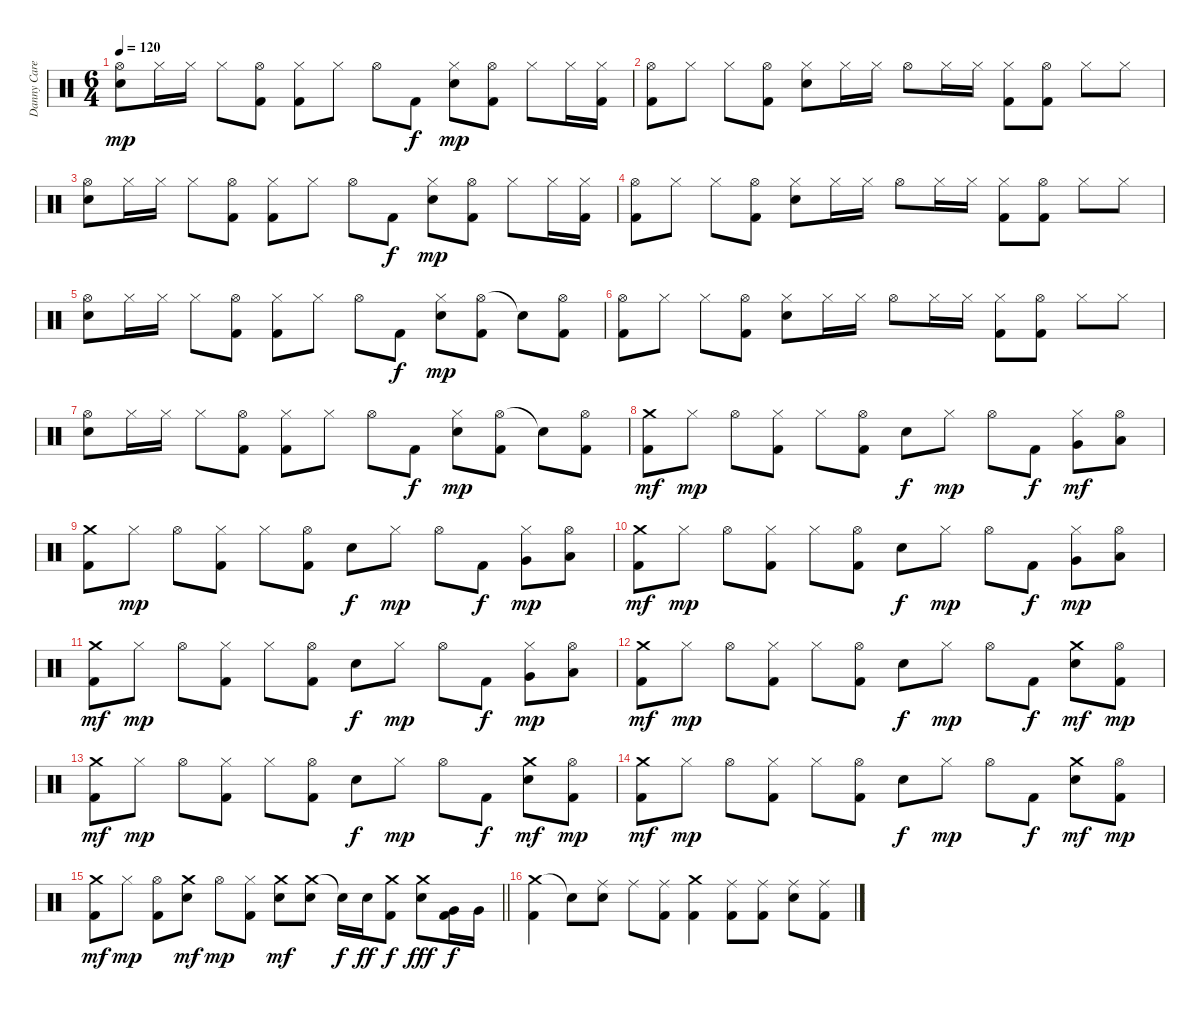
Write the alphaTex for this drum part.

\track ("Danny Carey" "Danny Care") {instrument percussion}
\staff {score}
\articulation defaults
\ts (6 4)
\tempo 120
\clef neutral
\ks c
("Hi-Hat (open)" "Snare (hit) 2").8{dy mp} "Hi-Hat (closed)".16 "Hi-Hat (closed)".16 "Hi-Hat (closed)".8 ("Hi-Hat (open)" "Kick (hit) 2").8 ("Hi-Hat (closed)" "Kick (hit) 2").8 "Hi-Hat (closed)".8 "Hi-Hat (open)".8 "Kick (hit) 2".8{dy f} ("Hi-Hat (closed)" "Snare (hit) 2").8{dy mp} ("Hi-Hat (open)" "Kick (hit) 2").8 "Hi-Hat (closed)".8 "Hi-Hat (closed)".16 ("Hi-Hat (closed)" "Kick (hit) 2").16 |
("Hi-Hat (open)" "Kick (hit) 2").8 "Hi-Hat (closed)".8 "Hi-Hat (closed)".8 ("Hi-Hat (open)" "Kick (hit) 2").8 ("Hi-Hat (closed)" "Snare (hit) 2").8 "Hi-Hat (closed)".16 "Hi-Hat (closed)".16 "Hi-Hat (open)".8 "Hi-Hat (closed)".16 "Hi-Hat (closed)".16 ("Hi-Hat (closed)" "Kick (hit) 2").8 ("Hi-Hat (open)" "Kick (hit) 2").8 "Hi-Hat (closed)".8 "Hi-Hat (closed)".8 |
("Hi-Hat (open)" "Snare (hit) 2").8 "Hi-Hat (closed)".16 "Hi-Hat (closed)".16 "Hi-Hat (closed)".8 ("Hi-Hat (open)" "Kick (hit) 2").8 ("Hi-Hat (closed)" "Kick (hit) 2").8 "Hi-Hat (closed)".8 "Hi-Hat (open)".8 "Kick (hit) 2".8{dy f} ("Hi-Hat (closed)" "Snare (hit) 2").8{dy mp} ("Hi-Hat (open)" "Kick (hit) 2").8 "Hi-Hat (closed)".8 "Hi-Hat (closed)".16 ("Hi-Hat (closed)" "Kick (hit) 2").16 |
("Hi-Hat (open)" "Kick (hit) 2").8 "Hi-Hat (closed)".8 "Hi-Hat (closed)".8 ("Hi-Hat (open)" "Kick (hit) 2").8 ("Hi-Hat (closed)" "Snare (hit) 2").8 "Hi-Hat (closed)".16 "Hi-Hat (closed)".16 "Hi-Hat (open)".8 "Hi-Hat (closed)".16 "Hi-Hat (closed)".16 ("Hi-Hat (closed)" "Kick (hit) 2").8 ("Hi-Hat (open)" "Kick (hit) 2").8 "Hi-Hat (closed)".8 "Hi-Hat (closed)".8 |
("Hi-Hat (open)" "Snare (hit) 2").8 "Hi-Hat (closed)".16 "Hi-Hat (closed)".16 "Hi-Hat (closed)".8 ("Hi-Hat (open)" "Kick (hit) 2").8 ("Hi-Hat (closed)" "Kick (hit) 2").8 "Hi-Hat (closed)".8 "Hi-Hat (open)".8 "Kick (hit) 2".8{dy f} ("Hi-Hat (closed)" "Snare (hit) 2").8{dy mp} ("Hi-Hat (open)" "Kick (hit) 2").8 "Snare (hit)"{t}.8 ("Hi-Hat (open)" "Kick (hit) 2").8 |
("Hi-Hat (open)" "Kick (hit) 2").8 "Hi-Hat (closed)".8 "Hi-Hat (closed)".8 ("Hi-Hat (open)" "Kick (hit) 2").8 ("Hi-Hat (closed)" "Snare (hit) 2").8 "Hi-Hat (closed)".16 "Hi-Hat (closed)".16 "Hi-Hat (open)".8 "Hi-Hat (closed)".16 "Hi-Hat (closed)".16 ("Hi-Hat (closed)" "Kick (hit) 2").8 ("Hi-Hat (open)" "Kick (hit) 2").8 "Hi-Hat (closed)".8 "Hi-Hat (closed)".8 |
("Hi-Hat (open)" "Snare (hit) 2").8 "Hi-Hat (closed)".16 "Hi-Hat (closed)".16 "Hi-Hat (closed)".8 ("Hi-Hat (open)" "Kick (hit) 2").8 ("Hi-Hat (closed)" "Kick (hit) 2").8 "Hi-Hat (closed)".8 "Hi-Hat (open)".8 "Kick (hit) 2".8{dy f} ("Hi-Hat (closed)" "Snare (hit) 2").8{dy mp} ("Hi-Hat (open)" "Kick (hit) 2").8 "Snare (hit)"{t}.8 ("Hi-Hat (open)" "Kick (hit) 2").8 |
("Crash medium (hit)" "Kick (hit) 2").8{dy mf} "Hi-Hat (closed)".8{dy mp} "Hi-Hat (open)".8 ("Hi-Hat (closed)" "Kick (hit) 2").8 "Hi-Hat (closed)".8 ("Hi-Hat (open)" "Kick (hit) 2").8 "Snare (hit) 2".8{dy f} "Hi-Hat (closed)".8{dy mp} "Hi-Hat (open)".8 "Kick (hit) 2".8{dy f} ("Hi-Hat (closed)" "Very Low Tom (hit)").8{dy mf} ("Hi-Hat (open)" "Low Floor Tom (hit)").8 |
("Crash medium (hit)" "Kick (hit) 2").8 "Hi-Hat (closed)".8{dy mp} "Hi-Hat (open)".8 ("Hi-Hat (closed)" "Kick (hit) 2").8 "Hi-Hat (closed)".8 ("Hi-Hat (open)" "Kick (hit) 2").8 "Snare (hit) 2".8{dy f} "Hi-Hat (closed)".8{dy mp} "Hi-Hat (open)".8 "Kick (hit) 2".8{dy f} ("Hi-Hat (closed)" "Very Low Tom (hit)").8{dy mp} ("Hi-Hat (open)" "Low Floor Tom (hit)").8 |
("Crash medium (hit)" "Kick (hit) 2").8{dy mf} "Hi-Hat (closed)".8{dy mp} "Hi-Hat (open)".8 ("Hi-Hat (closed)" "Kick (hit) 2").8 "Hi-Hat (closed)".8 ("Hi-Hat (open)" "Kick (hit) 2").8 "Snare (hit) 2".8{dy f} "Hi-Hat (closed)".8{dy mp} "Hi-Hat (open)".8 "Kick (hit) 2".8{dy f} ("Hi-Hat (closed)" "Very Low Tom (hit)").8{dy mp} ("Hi-Hat (open)" "Low Floor Tom (hit)").8 |
("Crash medium (hit)" "Kick (hit) 2").8{dy mf} "Hi-Hat (closed)".8{dy mp} "Hi-Hat (open)".8 ("Hi-Hat (closed)" "Kick (hit) 2").8 "Hi-Hat (closed)".8 ("Hi-Hat (open)" "Kick (hit) 2").8 "Snare (hit) 2".8{dy f} "Hi-Hat (closed)".8{dy mp} "Hi-Hat (open)".8 "Kick (hit) 2".8{dy f} ("Hi-Hat (closed)" "Very Low Tom (hit)").8{dy mp} ("Hi-Hat (open)" "Low Floor Tom (hit)").8 |
("Crash medium (hit)" "Kick (hit) 2").8{dy mf} "Hi-Hat (closed)".8{dy mp} "Hi-Hat (open)".8 ("Hi-Hat (closed)" "Kick (hit) 2").8 "Hi-Hat (closed)".8 ("Hi-Hat (open)" "Kick (hit) 2").8 "Snare (hit) 2".8{dy f} "Hi-Hat (closed)".8{dy mp} "Hi-Hat (open)".8 "Kick (hit) 2".8{dy f} ("Crash medium (hit)" "Snare (hit) 2").8{dy mf} ("Hi-Hat (open)" "Kick (hit) 2").8{dy mp} |
("Crash medium (hit)" "Kick (hit) 2").8{dy mf} "Hi-Hat (closed)".8{dy mp} "Hi-Hat (open)".8 ("Hi-Hat (closed)" "Kick (hit) 2").8 "Hi-Hat (closed)".8 ("Hi-Hat (open)" "Kick (hit) 2").8 "Snare (hit) 2".8{dy f} "Hi-Hat (closed)".8{dy mp} "Hi-Hat (open)".8 "Kick (hit) 2".8{dy f} ("Crash medium (hit)" "Snare (hit) 2").8{dy mf} ("Hi-Hat (open)" "Kick (hit) 2").8{dy mp} |
("Crash medium (hit)" "Kick (hit) 2").8{dy mf} "Hi-Hat (closed)".8{dy mp} "Hi-Hat (open)".8 ("Hi-Hat (closed)" "Kick (hit) 2").8 "Hi-Hat (closed)".8 ("Hi-Hat (open)" "Kick (hit) 2").8 "Snare (hit) 2".8{dy f} "Hi-Hat (closed)".8{dy mp} "Hi-Hat (open)".8 "Kick (hit) 2".8{dy f} ("Crash medium (hit)" "Snare (hit) 2").8{dy mf} ("Hi-Hat (open)" "Kick (hit) 2").8{dy mp} |
\barLineRight lightlight
("Crash medium (hit)" "Kick (hit) 2").8{dy mf} "Hi-Hat (closed)".8{dy mp} ("Hi-Hat (open)" "Kick (hit) 2").8 ("Crash medium (hit)" "Snare (hit) 2").8{dy mf} "Hi-Hat (open)".8{dy mp} ("Hi-Hat (closed)" "Kick (hit) 2").8 ("Crash medium (hit)" "Snare (hit) 2").8{dy mf} ("Crash medium (hit)" "Snare (hit) 2").8 "Snare (hit)"{t}.16{dy f} "Snare (hit) 2".16{dy ff} ("Crash medium (hit)" "Kick (hit) 2").8{dy f} ("Crash medium (hit)" "Snare (hit) 2").8{dy fff} ("Very Low Tom (hit)" "Kick (hit) 2").16{dy f} "Very Low Tom (hit)".16 |
\section ("" "")
("Crash medium (hit)" "Kick (hit) 2").4 "Snare (hit)"{t}.8 ("Ride (middle)" "Snare (hit) 2").8 "Ride (middle)".8 ("Ride (middle)" "Kick (hit) 2").8 ("Crash medium (hit)" "Kick (hit) 2").4 ("Ride (middle)" "Kick (hit) 2").8 ("Ride (middle)" "Kick (hit) 2").8 ("Ride (middle)" "Snare (hit) 2").8 ("Ride (middle)" "Kick (hit) 2").8
